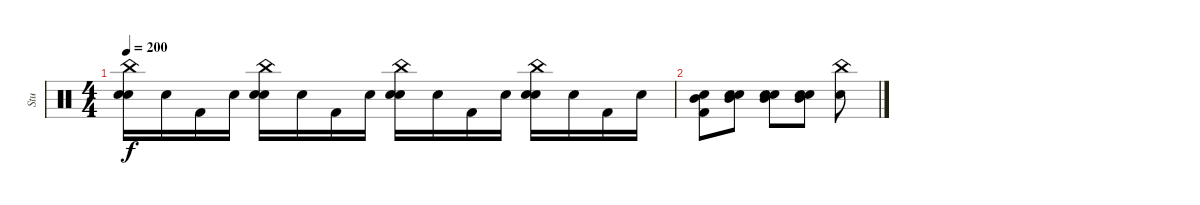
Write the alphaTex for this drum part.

\track ("Stu" "Stu") {instrument percussion}
\staff {score}
\articulation defaults
\ts (4 4)
\tempo 200
\clef neutral
\ks c
("China (hit)" "Electric Snare (hit)" "Snare (hit)"{x}).16{dy f} "Snare (hit)"{x}.16 "Kick (hit) 2".16 "Snare (hit)"{x}.16 ("China (hit)" "Electric Snare (hit)" "Snare (hit)"{x}).16 "Snare (hit)"{x}.16 "Kick (hit) 2".16 "Snare (hit)"{x}.16 ("China (hit)" "Electric Snare (hit)" "Snare (hit)"{x}).16 "Snare (hit)"{x}.16 "Kick (hit) 2".16 "Snare (hit)"{x}.16 ("China (hit)" "Electric Snare (hit)" "Snare (hit)"{x}).16 "Snare (hit)"{x}.16 "Kick (hit) 2".16 "Snare (hit)"{x}.16 |
("Mid Tom (hit)" "Electric Snare (hit)" "Kick (hit) 2"{x}).8 ("Mid Tom (hit)" "Electric Snare (hit)" "Snare (hit)"{x}).8 ("Mid Tom (hit)" "Electric Snare (hit)" "Snare (hit)"{x}).8 ("Mid Tom (hit)" "Electric Snare (hit)" "Snare (hit)"{x}).8 ("China (hit)" "Electric Snare (hit)").8
